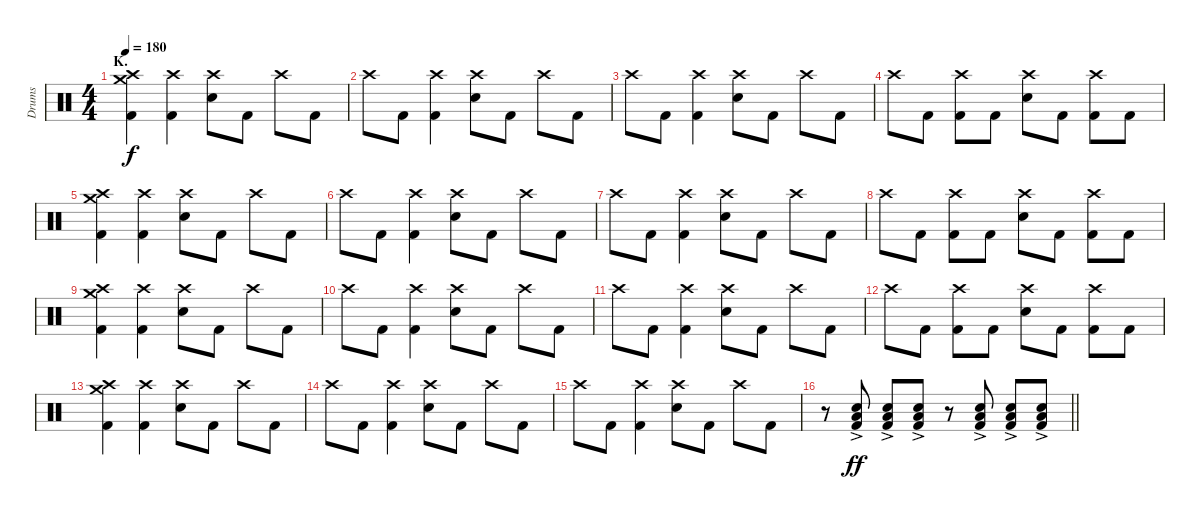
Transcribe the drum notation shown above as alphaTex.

\track ("Drums" "Drums") {instrument percussion}
\staff {score}
\articulation defaults
\ts (4 4)
\section ("" "K.")
\tempo 180
\clef neutral
\ks c
("Crash medium (hit)" "Crash high (hit)" "Kick (hit) 2").4{dy f} ("Crash high (hit)" "Kick (hit) 2").4 ("Crash high (hit)" "Electric Snare (hit)").8 "Kick (hit) 2".8 "Crash high (hit)".8 "Kick (hit) 2".8 |
"Crash high (hit)".8 "Kick (hit) 2".8 ("Crash high (hit)" "Kick (hit) 2").4 ("Crash high (hit)" "Electric Snare (hit)").8 "Kick (hit) 2".8 "Crash high (hit)".8 "Kick (hit) 2".8 |
"Crash high (hit)".8 "Kick (hit) 2".8 ("Crash high (hit)" "Kick (hit) 2").4 ("Crash high (hit)" "Electric Snare (hit)").8 "Kick (hit) 2".8 "Crash high (hit)".8 "Kick (hit) 2".8 |
"Crash high (hit)".8 "Kick (hit) 2".8 ("Crash high (hit)" "Kick (hit) 2").8 "Kick (hit) 2".8 ("Crash high (hit)" "Electric Snare (hit)").8 "Kick (hit) 2".8 ("Crash high (hit)" "Kick (hit) 2").8 "Kick (hit) 2".8 |
("Crash medium (hit)" "Crash high (hit)" "Kick (hit) 2").4 ("Crash high (hit)" "Kick (hit) 2").4 ("Crash high (hit)" "Electric Snare (hit)").8 "Kick (hit) 2".8 "Crash high (hit)".8 "Kick (hit) 2".8 |
"Crash high (hit)".8 "Kick (hit) 2".8 ("Crash high (hit)" "Kick (hit) 2").4 ("Crash high (hit)" "Electric Snare (hit)").8 "Kick (hit) 2".8 "Crash high (hit)".8 "Kick (hit) 2".8 |
"Crash high (hit)".8 "Kick (hit) 2".8 ("Crash high (hit)" "Kick (hit) 2").4 ("Crash high (hit)" "Electric Snare (hit)").8 "Kick (hit) 2".8 "Crash high (hit)".8 "Kick (hit) 2".8 |
"Crash high (hit)".8 "Kick (hit) 2".8 ("Crash high (hit)" "Kick (hit) 2").8 "Kick (hit) 2".8 ("Crash high (hit)" "Electric Snare (hit)").8 "Kick (hit) 2".8 ("Crash high (hit)" "Kick (hit) 2").8 "Kick (hit) 2".8 |
("Crash medium (hit)" "Crash high (hit)" "Kick (hit) 2").4 ("Crash high (hit)" "Kick (hit) 2").4 ("Crash high (hit)" "Electric Snare (hit)").8 "Kick (hit) 2".8 "Crash high (hit)".8 "Kick (hit) 2".8 |
"Crash high (hit)".8 "Kick (hit) 2".8 ("Crash high (hit)" "Kick (hit) 2").4 ("Crash high (hit)" "Electric Snare (hit)").8 "Kick (hit) 2".8 "Crash high (hit)".8 "Kick (hit) 2".8 |
"Crash high (hit)".8 "Kick (hit) 2".8 ("Crash high (hit)" "Kick (hit) 2").4 ("Crash high (hit)" "Electric Snare (hit)").8 "Kick (hit) 2".8 "Crash high (hit)".8 "Kick (hit) 2".8 |
"Crash high (hit)".8 "Kick (hit) 2".8 ("Crash high (hit)" "Kick (hit) 2").8 "Kick (hit) 2".8 ("Crash high (hit)" "Electric Snare (hit)").8 "Kick (hit) 2".8 ("Crash high (hit)" "Kick (hit) 2").8 "Kick (hit) 2".8 |
("Crash medium (hit)" "Crash high (hit)" "Kick (hit) 2").4 ("Crash high (hit)" "Kick (hit) 2").4 ("Crash high (hit)" "Electric Snare (hit)").8 "Kick (hit) 2".8 "Crash high (hit)".8 "Kick (hit) 2".8 |
"Crash high (hit)".8 "Kick (hit) 2".8 ("Crash high (hit)" "Kick (hit) 2").4 ("Crash high (hit)" "Electric Snare (hit)").8 "Kick (hit) 2".8 "Crash high (hit)".8 "Kick (hit) 2".8 |
"Crash high (hit)".8 "Kick (hit) 2".8 ("Crash high (hit)" "Kick (hit) 2").4 ("Crash high (hit)" "Electric Snare (hit)").8 "Kick (hit) 2".8 "Crash high (hit)".8 "Kick (hit) 2".8 |
\barLineRight lightlight
r.8 ("Electric Snare (hit)"{ac} "Low Floor Tom (hit)"{ac} "Kick (hit) 2").8{dy ff} ("Electric Snare (hit)"{ac} "Low Floor Tom (hit)"{ac} "Kick (hit) 2").8 ("Electric Snare (hit)"{ac} "Low Floor Tom (hit)"{ac} "Kick (hit) 2").8 r.8 ("Electric Snare (hit)"{ac} "Low Floor Tom (hit)"{ac} "Kick (hit) 2").8 ("Electric Snare (hit)"{ac} "Low Floor Tom (hit)"{ac} "Kick (hit) 2").8 ("Electric Snare (hit)"{ac} "Low Floor Tom (hit)"{ac} "Kick (hit) 2").8
